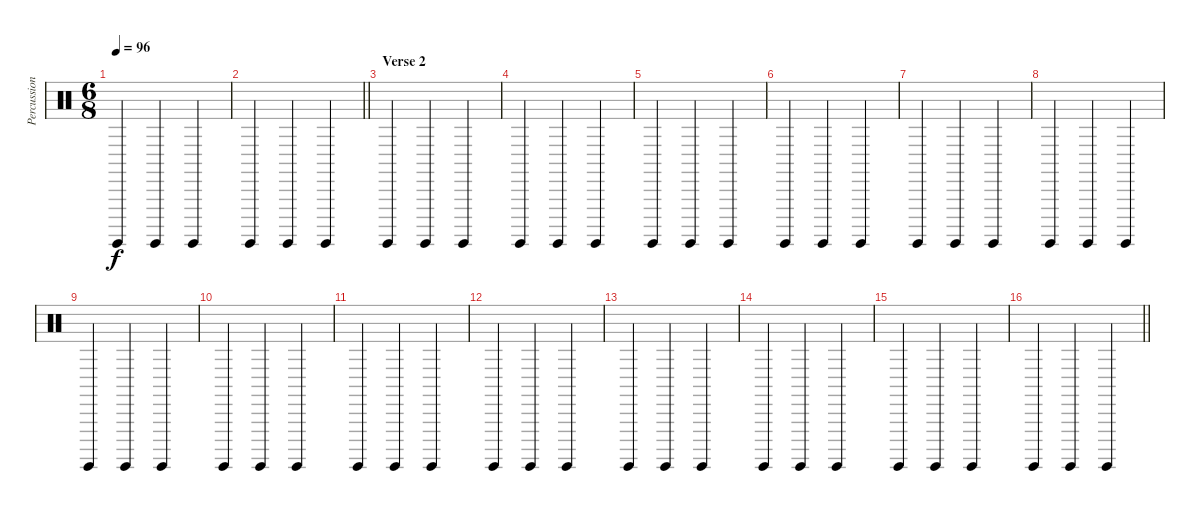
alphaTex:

\track ("Percussion" "Percussion") {instrument percussion}
\staff {score}
\articulation defaults
\ts (6 8)
\tempo 96
\clef neutral
\ks c "Surdo (hit)".4{dy f} "Surdo (hit)".4 "Surdo (hit)".4
|
\barLineRight lightlight "Surdo (hit)".4 "Surdo (hit)".4 "Surdo (hit)".4
|
\section ("" "Verse 2")
"Surdo (hit)".4 "Surdo (hit)".4 "Surdo (hit)".4 |
"Surdo (hit)".4 "Surdo (hit)".4 "Surdo (hit)".4 |
"Surdo (hit)".4 "Surdo (hit)".4 "Surdo (hit)".4 |
"Surdo (hit)".4 "Surdo (hit)".4 "Surdo (hit)".4 |
"Surdo (hit)".4 "Surdo (hit)".4 "Surdo (hit)".4 |
"Surdo (hit)".4 "Surdo (hit)".4 "Surdo (hit)".4 |
"Surdo (hit)".4 "Surdo (hit)".4 "Surdo (hit)".4 |
"Surdo (hit)".4 "Surdo (hit)".4 "Surdo (hit)".4 |
"Surdo (hit)".4 "Surdo (hit)".4 "Surdo (hit)".4 |
"Surdo (hit)".4 "Surdo (hit)".4 "Surdo (hit)".4 |
"Surdo (hit)".4 "Surdo (hit)".4 "Surdo (hit)".4 |
"Surdo (hit)".4 "Surdo (hit)".4 "Surdo (hit)".4 |
"Surdo (hit)".4 "Surdo (hit)".4 "Surdo (hit)".4 |
\barLineRight lightlight "Surdo (hit)".4 "Surdo (hit)".4 "Surdo (hit)".4
